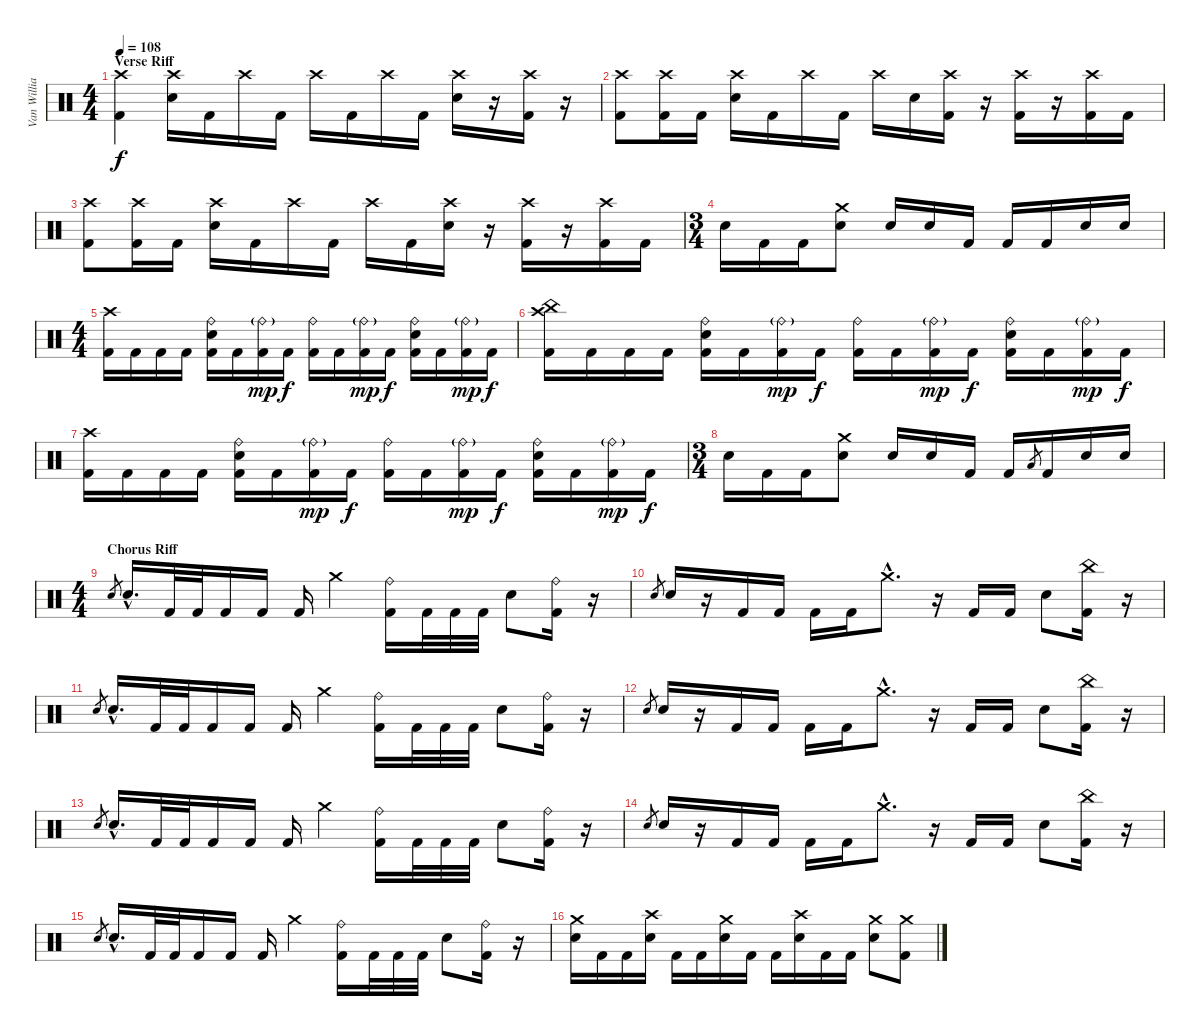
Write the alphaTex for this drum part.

\track ("Van Williams" "Van Willia") {instrument percussion}
\staff {score}
\articulation defaults
\ts (4 4)
\section ("" "Verse Riff")
\tempo 108
\clef neutral
\ks c
("Crash high (hit)" "Kick (hit) 2").4{dy f} ("Crash high (hit)" "Snare (hit) 2").16 "Kick (hit) 2".16 "Crash high (hit)".16 "Kick (hit) 2".16 "Crash high (hit)".16 "Kick (hit) 2".16 "Crash high (hit)".16 "Kick (hit) 2".16 ("Crash high (hit)" "Snare (hit) 2").16 r.16 ("Crash high (hit)" "Kick (hit) 2").16 r.16 |
("Crash high (hit)" "Kick (hit) 2").8 ("Crash high (hit)" "Kick (hit) 2").16 "Kick (hit) 2".16 ("Crash high (hit)" "Snare (hit) 2").16 "Kick (hit) 2".16 "Crash high (hit)".16 "Kick (hit) 2".16 "Crash high (hit)".16 "Snare (hit) 2".16 ("Crash high (hit)" "Kick (hit) 2").16 r.16 ("Crash high (hit)" "Kick (hit) 2").16 r.16 ("Crash high (hit)" "Kick (hit) 2").16 "Kick (hit) 2".16 |
("Crash high (hit)" "Kick (hit) 2").8 ("Crash high (hit)" "Kick (hit) 2").16 "Kick (hit) 2".16 ("Crash high (hit)" "Snare (hit) 2").16 "Kick (hit) 2".16 "Crash high (hit)".16 "Kick (hit) 2".16 "Crash high (hit)".16 "Kick (hit) 2".16 ("Crash high (hit)" "Snare (hit) 2").16 r.16 ("Crash high (hit)" "Kick (hit) 2").16 r.16 ("Crash high (hit)" "Kick (hit) 2").16 "Kick (hit) 2".16 |
\ts (3 4)
"Snare (hit) 2".16 "Kick (hit) 2".16 "Kick (hit) 2".16 ("Crash medium (hit)" "Snare (hit) 2").8 "Snare (hit) 2".16 "Snare (hit) 2".16 "Kick (hit) 2".16 "Kick (hit) 2".16 "Kick (hit) 2".16 "Electric Snare (hit)".16 "Snare (hit) 2".16 |
\ts (4 4)
("Crash high (hit)" "Kick (hit) 2").16 "Kick (hit) 2".16 "Kick (hit) 2".16 "Kick (hit) 2".16 ("Ride (bell)" "Electric Snare (hit)" "Kick (hit) 2").16 "Kick (hit) 2".16 ("Ride (bell)"{g} "Kick (hit) 2").16{dy mp} "Kick (hit) 2".16{dy f} ("Ride (bell)" "Kick (hit) 2").16 "Kick (hit) 2".16 ("Ride (bell)"{g} "Kick (hit) 2").16{dy mp} "Kick (hit) 2".16{dy f} ("Ride (bell)" "Electric Snare (hit)" "Kick (hit) 2").16 "Kick (hit) 2".16 ("Ride (bell)"{g} "Kick (hit) 2").16{dy mp} "Kick (hit) 2".16{dy f} |
("Crash high (hit)" "China (hit)" "Kick (hit) 2").16 "Kick (hit) 2".16 "Kick (hit) 2".16 "Kick (hit) 2".16 ("Ride (bell)" "Electric Snare (hit)" "Kick (hit) 2").16 "Kick (hit) 2".16 ("Ride (bell)"{g} "Kick (hit) 2").16{dy mp} "Kick (hit) 2".16{dy f} ("Ride (bell)" "Kick (hit) 2").16 "Kick (hit) 2".16 ("Ride (bell)"{g} "Kick (hit) 2").16{dy mp} "Kick (hit) 2".16{dy f} ("Ride (bell)" "Electric Snare (hit)" "Kick (hit) 2").16 "Kick (hit) 2".16 ("Ride (bell)"{g} "Kick (hit) 2").16{dy mp} "Kick (hit) 2".16{dy f} |
("Crash high (hit)" "Kick (hit) 2").16 "Kick (hit) 2".16 "Kick (hit) 2".16 "Kick (hit) 2".16 ("Ride (bell)" "Electric Snare (hit)" "Kick (hit) 2").16 "Kick (hit) 2".16 ("Ride (bell)"{g} "Kick (hit) 2").16{dy mp} "Kick (hit) 2".16{dy f} ("Ride (bell)" "Kick (hit) 2").16 "Kick (hit) 2".16 ("Ride (bell)"{g} "Kick (hit) 2").16{dy mp} "Kick (hit) 2".16{dy f} ("Ride (bell)" "Electric Snare (hit)" "Kick (hit) 2").16 "Kick (hit) 2".16 ("Ride (bell)"{g} "Kick (hit) 2").16{dy mp} "Kick (hit) 2".16{dy f} |
\ts (3 4)
"Snare (hit) 2".16 "Kick (hit) 2".16 "Kick (hit) 2".16 ("Crash medium (hit)" "Snare (hit) 2").8 "Snare (hit) 2".16 "Snare (hit) 2".16 "Kick (hit) 2".16 "Kick (hit) 2".16 "Low Tom (hit)".8{gr} "Kick (hit) 2".16 "Electric Snare (hit)".16 "Snare (hit) 2".16 |
\ts (4 4)
\section ("" "Chorus Riff")
"Electric Snare (hit)".8{gr} "Electric Snare (hit)"{hac}.16{d} "Kick (hit) 2".32 "Kick (hit) 2".32 "Kick (hit) 2".16 "Kick (hit) 2".16 "Kick (hit) 2".16 "Crash medium (hit)".4 ("Ride (bell)" "Kick (hit) 2").16 "Kick (hit) 2".32 "Kick (hit) 2".32 "Kick (hit) 2".32 "Electric Snare (hit)".8 ("Ride (bell)" "Kick (hit) 2").16 r.16 |
"Electric Snare (hit)".8{gr} "Electric Snare (hit)".16 r.16 "Kick (hit) 2".16 "Kick (hit) 2".16 "Kick (hit) 2".16 "Kick (hit) 2".16 "Crash medium (hit)"{hac}.8{d} r.16 "Kick (hit) 2".16 "Kick (hit) 2".16 "Electric Snare (hit)".8 ("China (hit)" "Kick (hit) 2").16 r.16 |
"Electric Snare (hit)".8{gr} "Electric Snare (hit)"{hac}.16{d} "Kick (hit) 2".32 "Kick (hit) 2".32 "Kick (hit) 2".16 "Kick (hit) 2".16 "Kick (hit) 2".16 "Crash medium (hit)".4 ("Ride (bell)" "Kick (hit) 2").16 "Kick (hit) 2".32 "Kick (hit) 2".32 "Kick (hit) 2".32 "Electric Snare (hit)".8 ("Ride (bell)" "Kick (hit) 2").16 r.16 |
"Electric Snare (hit)".8{gr} "Electric Snare (hit)".16 r.16 "Kick (hit) 2".16 "Kick (hit) 2".16 "Kick (hit) 2".16 "Kick (hit) 2".16 "Crash medium (hit)"{hac}.8{d} r.16 "Kick (hit) 2".16 "Kick (hit) 2".16 "Electric Snare (hit)".8 ("China (hit)" "Kick (hit) 2").16 r.16 |
"Electric Snare (hit)".8{gr} "Electric Snare (hit)"{hac}.16{d} "Kick (hit) 2".32 "Kick (hit) 2".32 "Kick (hit) 2".16 "Kick (hit) 2".16 "Kick (hit) 2".16 "Crash medium (hit)".4 ("Ride (bell)" "Kick (hit) 2").16 "Kick (hit) 2".32 "Kick (hit) 2".32 "Kick (hit) 2".32 "Electric Snare (hit)".8 ("Ride (bell)" "Kick (hit) 2").16 r.16 |
"Electric Snare (hit)".8{gr} "Electric Snare (hit)".16 r.16 "Kick (hit) 2".16 "Kick (hit) 2".16 "Kick (hit) 2".16 "Kick (hit) 2".16 "Crash medium (hit)"{hac}.8{d} r.16 "Kick (hit) 2".16 "Kick (hit) 2".16 "Electric Snare (hit)".8 ("China (hit)" "Kick (hit) 2").16 r.16 |
"Electric Snare (hit)".8{gr} "Electric Snare (hit)"{hac}.16{d} "Kick (hit) 2".32 "Kick (hit) 2".32 "Kick (hit) 2".16 "Kick (hit) 2".16 "Kick (hit) 2".16 "Crash medium (hit)".4 ("Ride (bell)" "Kick (hit) 2").16 "Kick (hit) 2".32 "Kick (hit) 2".32 "Kick (hit) 2".32 "Electric Snare (hit)".8 ("Ride (bell)" "Kick (hit) 2").16 r.16 |
("Crash medium (hit)" "Snare (hit) 2").16 "Kick (hit) 2".16 "Kick (hit) 2".16 ("Crash high (hit)" "Snare (hit) 2").16 "Kick (hit) 2".16 "Kick (hit) 2".16 ("Crash medium (hit)" "Snare (hit) 2").16 "Kick (hit) 2".16 "Kick (hit) 2".16 ("Crash high (hit)" "Snare (hit) 2").16 "Kick (hit) 2".16 "Kick (hit) 2".16 ("Crash medium (hit)" "Snare (hit) 2").8 ("Crash medium (hit)" "Kick (hit) 2").8
